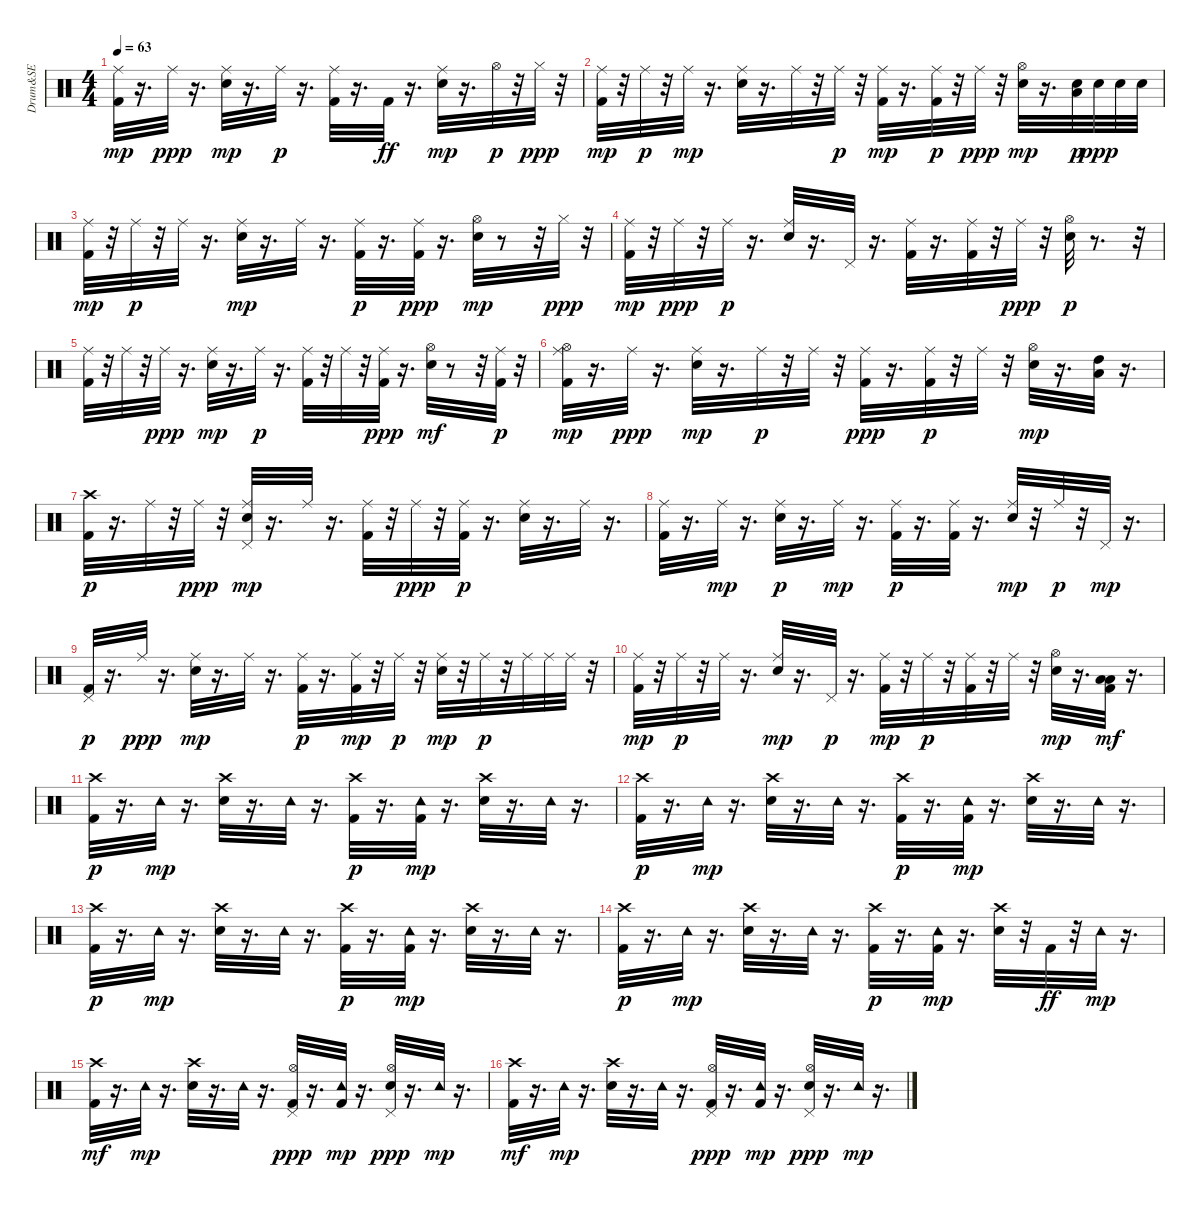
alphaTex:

\track ("Drum&SE" "Drum&SE") {instrument percussion}
\staff {score}
\articulation defaults
\ts (4 4)
\tempo 63
\clef neutral
\ks c
("Kick (hit) 2" "Ride (middle)").32{dy mp} r.16{d} "Ride (middle)".32{dy ppp} r.16{d} ("Snare (hit) 2" "Ride (middle)").32{dy mp} r.16{d} "Ride (middle)".32{dy p} r.16{d} ("Kick (hit) 2" "Ride (middle)").32 r.16{d} "Kick (hit) 2".32{dy ff} r.16{d} ("Snare (hit) 2" "Ride (middle)").32{dy mp} r.16{d} "Hi-Hat (open)".32{dy p} r.32 "Hi-Hat (closed)".32{dy ppp} r.32 |
("Kick (hit) 2" "Ride (middle)").32{dy mp} r.32 "Ride (middle)".32{dy p} r.32 "Ride (middle)".32{dy mp} r.16{d} ("Snare (hit) 2" "Ride (middle)").32 r.16{d} "Ride (middle)".32 r.32 "Ride (middle)".32{dy p} r.32 ("Kick (hit) 2" "Ride (middle)").32{dy mp} r.16{d} ("Kick (hit) 2" "Ride (middle)").32{dy p} r.32 "Ride (middle)".32{dy ppp} r.32 ("Snare (hit) 2" "Hi-Hat (open)").32{dy mp} r.16{d} ("Snare (hit) 2" "Low Floor Tom (hit)").32{dy p} "Snare (hit) 2".32{dy ppp} "Snare (hit) 2".32 "Snare (hit) 2".32 |
("Kick (hit) 2" "Ride (middle)").32{dy mp} r.32 "Ride (middle)".32{dy p} r.32 "Ride (middle)".32 r.16{d} ("Snare (hit) 2" "Ride (middle)").32{dy mp} r.16{d} "Ride (middle)".32 r.16{d} ("Kick (hit) 2" "Ride (middle)").32{dy p} r.16{d} ("Kick (hit) 2" "Ride (middle)").32{dy ppp} r.16{d} ("Snare (hit) 2" "Hi-Hat (open)").32{dy mp} r.8 r.32 "Hi-Hat (closed)".32{dy ppp} r.32 |
("Kick (hit) 2" "Ride (middle)").32{dy mp} r.32 "Ride (middle)".32{dy ppp} r.32 "Ride (middle)".32{dy p} r.16{d} ("Snare (hit) 2" "Ride (middle)").32 r.16{d} "Pedal Hi-Hat (hit)".32 r.16{d} ("Kick (hit) 2" "Ride (middle)").32 r.16{d} ("Kick (hit) 2" "Ride (middle)").32 r.32 "Ride (middle)".32{dy ppp} r.32 ("Snare (hit) 2" "Hi-Hat (open)").32{dy p} r.8{d} r.32 |
("Kick (hit) 2" "Ride (middle)").32 r.32 "Ride (middle)".32 r.32 "Ride (middle)".32{dy ppp} r.16{d} ("Snare (hit) 2" "Ride (middle)").32{dy mp} r.16{d} "Ride (middle)".32{dy p} r.16{d} ("Kick (hit) 2" "Ride (middle)").32 r.32 "Ride (middle)".32 r.32 ("Kick (hit) 2" "Ride (middle)").32{dy ppp} r.16{d} ("Snare (hit) 2" "Hi-Hat (open)").32{dy mf} r.8 r.32 ("Kick (hit) 2" "Ride (middle)").32{dy p} r.32 |
("Kick (hit) 2" "Hi-Hat (open)" "Ride (middle)").32{dy mp} r.16{d} "Ride (middle)".32{dy ppp} r.16{d} ("Snare (hit) 2" "Ride (middle)").32{dy mp} r.16{d} "Ride (middle)".32{dy p} r.32 "Ride (middle)".32 r.32 ("Kick (hit) 2" "Ride (middle)").32{dy ppp} r.16{d} ("Kick (hit) 2" "Ride (middle)").32{dy p} r.32 "Ride (middle)".32 r.32 ("Snare (hit) 2" "Hi-Hat (open)").32{dy mp} r.16{d} ("Low Tom (hit)" "High Tom (hit)").32 r.16{d} |
("Kick (hit) 2" "Crash high (hit)").32{dy p} r.16{d} "Ride (middle)".32 r.32 "Ride (middle)".32{dy ppp} r.32 ("Snare (hit) 2" "Pedal Hi-Hat (hit)" "Ride (middle)").32{dy mp} r.16{d} "Ride (middle)".32 r.16{d} ("Kick (hit) 2" "Ride (middle)").32 r.32 "Ride (middle)".32{dy ppp} r.32 ("Kick (hit) 2" "Ride (middle)").32{dy p} r.16{d} ("Snare (hit) 2" "Ride (middle)").32 r.16{d} "Ride (middle)".32 r.16{d} |
("Kick (hit) 2" "Ride (middle)").32 r.16{d} "Ride (middle)".32{dy mp} r.16{d} ("Snare (hit) 2" "Ride (middle)").32{dy p} r.16{d} "Ride (middle)".32{dy mp} r.16{d} ("Kick (hit) 2" "Ride (middle)").32{dy p} r.16{d} ("Kick (hit) 2" "Ride (middle)").32 r.16{d} ("Snare (hit) 2" "Ride (middle)").32{dy mp} r.32 "Ride (middle)".32{dy p} r.32 "Pedal Hi-Hat (hit)".32{dy mp} r.16{d} |
("Kick (hit) 2" "Pedal Hi-Hat (hit)").32{dy p} r.16{d} "Ride (middle)".32{dy ppp} r.16{d} ("Snare (hit) 2" "Ride (middle)").32{dy mp} r.16{d} "Ride (middle)".32 r.16{d} ("Kick (hit) 2" "Ride (middle)").32{dy p} r.16{d} ("Kick (hit) 2" "Ride (middle)").32{dy mp} r.32 "Ride (middle)".32{dy p} r.32 ("Snare (hit) 2" "Ride (middle)").32{dy mp} r.32 "Ride (middle)".32{dy p} r.32 "Ride (middle)".32 "Ride (middle)".32 "Ride (middle)".32 r.32 |
("Kick (hit) 2" "Ride (middle)").32{dy mp} r.32 "Ride (middle)".32{dy p} r.32 "Ride (middle)".32 r.16{d} ("Snare (hit) 2" "Ride (middle)").32{dy mp} r.16{d} "Pedal Hi-Hat (hit)".32{dy p} r.16{d} ("Kick (hit) 2" "Ride (middle)").32{dy mp} r.32 "Ride (middle)".32{dy p} r.32 ("Kick (hit) 2" "Ride (middle)").32 r.32 "Ride (middle)".32 r.32 ("Snare (hit) 2" "Hi-Hat (open)").32{dy mp} r.16{d} ("Kick (hit) 2" "Low Floor Tom (hit)" "Low Tom (hit)").32{dy mf} r.16{d} |
("Kick (hit) 2" "Crash high (hit)").32{dy p} r.16{d} "Tambourine (hit)".32{dy mp} r.16{d} ("Snare (hit) 2" "Crash high (hit)").32 r.16{d} "Tambourine (hit)".32 r.16{d} ("Kick (hit) 2" "Crash high (hit)").32{dy p} r.16{d} ("Kick (hit) 2" "Tambourine (hit)").32{dy mp} r.16{d} ("Snare (hit) 2" "Crash high (hit)").32 r.16{d} "Tambourine (hit)".32 r.16{d} |
("Kick (hit) 2" "Crash high (hit)").32{dy p} r.16{d} "Tambourine (hit)".32{dy mp} r.16{d} ("Snare (hit) 2" "Crash high (hit)").32 r.16{d} "Tambourine (hit)".32 r.16{d} ("Kick (hit) 2" "Crash high (hit)").32{dy p} r.16{d} ("Kick (hit) 2" "Tambourine (hit)").32{dy mp} r.16{d} ("Snare (hit) 2" "Crash high (hit)").32 r.16{d} "Tambourine (hit)".32 r.16{d} |
("Kick (hit) 2" "Crash high (hit)").32{dy p} r.16{d} "Tambourine (hit)".32{dy mp} r.16{d} ("Snare (hit) 2" "Crash high (hit)").32 r.16{d} "Tambourine (hit)".32 r.16{d} ("Kick (hit) 2" "Crash high (hit)").32{dy p} r.16{d} ("Kick (hit) 2" "Tambourine (hit)").32{dy mp} r.16{d} ("Snare (hit) 2" "Crash high (hit)").32 r.16{d} "Tambourine (hit)".32 r.16{d} |
("Kick (hit) 2" "Crash high (hit)").32{dy p} r.16{d} "Tambourine (hit)".32{dy mp} r.16{d} ("Snare (hit) 2" "Crash high (hit)").32 r.16{d} "Tambourine (hit)".32 r.16{d} ("Kick (hit) 2" "Crash high (hit)").32{dy p} r.16{d} ("Kick (hit) 2" "Tambourine (hit)").32{dy mp} r.16{d} ("Snare (hit) 2" "Crash high (hit)").32 r.32 "Kick (hit) 2".32{dy ff} r.32 "Tambourine (hit)".32{dy mp} r.16{d} |
("Kick (hit) 2" "Crash high (hit)").32{dy mf} r.16{d} "Tambourine (hit)".32{dy mp} r.16{d} ("Snare (hit) 2" "Crash high (hit)").32 r.16{d} "Tambourine (hit)".32 r.16{d} ("Kick (hit) 2" "Pedal Hi-Hat (hit)" "Hi-Hat (open)").32{dy ppp} r.16{d} ("Kick (hit) 2" "Tambourine (hit)").32{dy mp} r.16{d} ("Snare (hit) 2" "Pedal Hi-Hat (hit)" "Hi-Hat (open)").32{dy ppp} r.16{d} "Tambourine (hit)".32{dy mp} r.16{d} |
("Kick (hit) 2" "Crash high (hit)").32{dy mf} r.16{d} "Tambourine (hit)".32{dy mp} r.16{d} ("Snare (hit) 2" "Crash high (hit)").32 r.16{d} "Tambourine (hit)".32 r.16{d} ("Kick (hit) 2" "Pedal Hi-Hat (hit)" "Hi-Hat (open)").32{dy ppp} r.16{d} ("Kick (hit) 2" "Tambourine (hit)").32{dy mp} r.16{d} ("Snare (hit) 2" "Pedal Hi-Hat (hit)" "Hi-Hat (open)").32{dy ppp} r.16{d} "Tambourine (hit)".32{dy mp} r.16{d}
